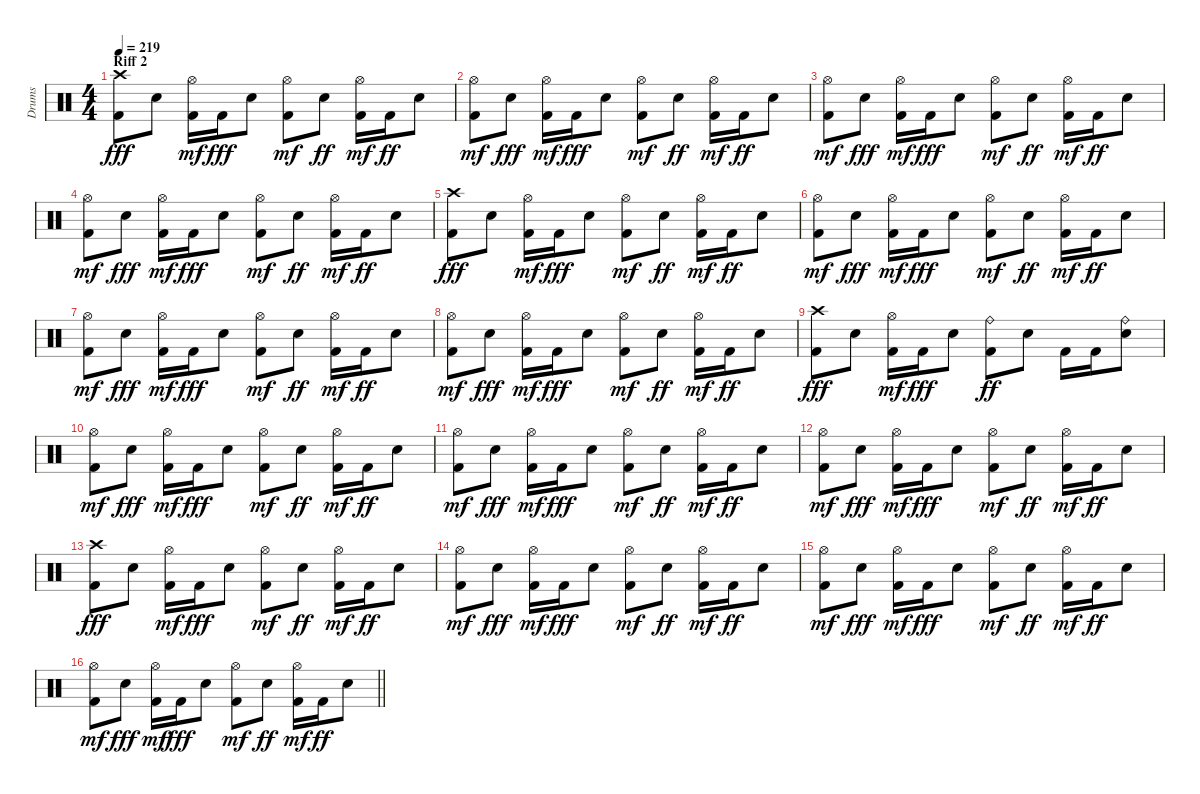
\track ("Drums" "Drums") {instrument percussion}
\staff {score}
\articulation defaults
\ts (4 4)
\section ("" "Riff 2")
\tempo 219
\clef neutral
\ks c
("Kick (hit) 2" "Crash high (hit)").8{dy fff} "Snare (hit) 2".8 ("Kick (hit) 2" "Hi-Hat (open)").16{dy mf} "Kick (hit) 2".16{dy fff} "Snare (hit) 2".8 ("Kick (hit) 2" "Hi-Hat (open)").8{dy mf} "Snare (hit) 2".8{dy ff} ("Kick (hit) 2" "Hi-Hat (open)").16{dy mf} "Kick (hit) 2".16{dy ff} "Snare (hit) 2".8 |
("Kick (hit) 2" "Hi-Hat (open)").8{dy mf} "Snare (hit) 2".8{dy fff} ("Kick (hit) 2" "Hi-Hat (open)").16{dy mf} "Kick (hit) 2".16{dy fff} "Snare (hit) 2".8 ("Kick (hit) 2" "Hi-Hat (open)").8{dy mf} "Snare (hit) 2".8{dy ff} ("Kick (hit) 2" "Hi-Hat (open)").16{dy mf} "Kick (hit) 2".16{dy ff} "Snare (hit) 2".8 |
("Kick (hit) 2" "Hi-Hat (open)").8{dy mf} "Snare (hit) 2".8{dy fff} ("Kick (hit) 2" "Hi-Hat (open)").16{dy mf} "Kick (hit) 2".16{dy fff} "Snare (hit) 2".8 ("Kick (hit) 2" "Hi-Hat (open)").8{dy mf} "Snare (hit) 2".8{dy ff} ("Kick (hit) 2" "Hi-Hat (open)").16{dy mf} "Kick (hit) 2".16{dy ff} "Snare (hit) 2".8 |
("Kick (hit) 2" "Hi-Hat (open)").8{dy mf} "Snare (hit) 2".8{dy fff} ("Kick (hit) 2" "Hi-Hat (open)").16{dy mf} "Kick (hit) 2".16{dy fff} "Snare (hit) 2".8 ("Kick (hit) 2" "Hi-Hat (open)").8{dy mf} "Snare (hit) 2".8{dy ff} ("Kick (hit) 2" "Hi-Hat (open)").16{dy mf} "Kick (hit) 2".16{dy ff} "Snare (hit) 2".8 |
("Kick (hit) 2" "Crash high (hit)").8{dy fff} "Snare (hit) 2".8 ("Kick (hit) 2" "Hi-Hat (open)").16{dy mf} "Kick (hit) 2".16{dy fff} "Snare (hit) 2".8 ("Kick (hit) 2" "Hi-Hat (open)").8{dy mf} "Snare (hit) 2".8{dy ff} ("Kick (hit) 2" "Hi-Hat (open)").16{dy mf} "Kick (hit) 2".16{dy ff} "Snare (hit) 2".8 |
("Kick (hit) 2" "Hi-Hat (open)").8{dy mf} "Snare (hit) 2".8{dy fff} ("Kick (hit) 2" "Hi-Hat (open)").16{dy mf} "Kick (hit) 2".16{dy fff} "Snare (hit) 2".8 ("Kick (hit) 2" "Hi-Hat (open)").8{dy mf} "Snare (hit) 2".8{dy ff} ("Kick (hit) 2" "Hi-Hat (open)").16{dy mf} "Kick (hit) 2".16{dy ff} "Snare (hit) 2".8 |
("Kick (hit) 2" "Hi-Hat (open)").8{dy mf} "Snare (hit) 2".8{dy fff} ("Kick (hit) 2" "Hi-Hat (open)").16{dy mf} "Kick (hit) 2".16{dy fff} "Snare (hit) 2".8 ("Kick (hit) 2" "Hi-Hat (open)").8{dy mf} "Snare (hit) 2".8{dy ff} ("Kick (hit) 2" "Hi-Hat (open)").16{dy mf} "Kick (hit) 2".16{dy ff} "Snare (hit) 2".8 |
("Kick (hit) 2" "Hi-Hat (open)").8{dy mf} "Snare (hit) 2".8{dy fff} ("Kick (hit) 2" "Hi-Hat (open)").16{dy mf} "Kick (hit) 2".16{dy fff} "Snare (hit) 2".8 ("Kick (hit) 2" "Hi-Hat (open)").8{dy mf} "Snare (hit) 2".8{dy ff} ("Kick (hit) 2" "Hi-Hat (open)").16{dy mf} "Kick (hit) 2".16{dy ff} "Snare (hit) 2".8 |
("Kick (hit) 2" "Crash high (hit)").8{dy fff} "Snare (hit) 2".8 ("Kick (hit) 2" "Hi-Hat (open)").16{dy mf} "Kick (hit) 2".16{dy fff} "Snare (hit) 2".8 ("Kick (hit) 2" "Ride (bell)").8{dy ff} "Snare (hit) 2".8 "Kick (hit) 2".16 "Kick (hit) 2".16 ("Snare (hit) 2" "Ride (bell)").8 |
("Kick (hit) 2" "Hi-Hat (open)").8{dy mf} "Snare (hit) 2".8{dy fff} ("Kick (hit) 2" "Hi-Hat (open)").16{dy mf} "Kick (hit) 2".16{dy fff} "Snare (hit) 2".8 ("Kick (hit) 2" "Hi-Hat (open)").8{dy mf} "Snare (hit) 2".8{dy ff} ("Kick (hit) 2" "Hi-Hat (open)").16{dy mf} "Kick (hit) 2".16{dy ff} "Snare (hit) 2".8 |
("Kick (hit) 2" "Hi-Hat (open)").8{dy mf} "Snare (hit) 2".8{dy fff} ("Kick (hit) 2" "Hi-Hat (open)").16{dy mf} "Kick (hit) 2".16{dy fff} "Snare (hit) 2".8 ("Kick (hit) 2" "Hi-Hat (open)").8{dy mf} "Snare (hit) 2".8{dy ff} ("Kick (hit) 2" "Hi-Hat (open)").16{dy mf} "Kick (hit) 2".16{dy ff} "Snare (hit) 2".8 |
("Kick (hit) 2" "Hi-Hat (open)").8{dy mf} "Snare (hit) 2".8{dy fff} ("Kick (hit) 2" "Hi-Hat (open)").16{dy mf} "Kick (hit) 2".16{dy fff} "Snare (hit) 2".8 ("Kick (hit) 2" "Hi-Hat (open)").8{dy mf} "Snare (hit) 2".8{dy ff} ("Kick (hit) 2" "Hi-Hat (open)").16{dy mf} "Kick (hit) 2".16{dy ff} "Snare (hit) 2".8 |
("Kick (hit) 2" "Crash high (hit)").8{dy fff} "Snare (hit) 2".8 ("Kick (hit) 2" "Hi-Hat (open)").16{dy mf} "Kick (hit) 2".16{dy fff} "Snare (hit) 2".8 ("Kick (hit) 2" "Hi-Hat (open)").8{dy mf} "Snare (hit) 2".8{dy ff} ("Kick (hit) 2" "Hi-Hat (open)").16{dy mf} "Kick (hit) 2".16{dy ff} "Snare (hit) 2".8 |
("Kick (hit) 2" "Hi-Hat (open)").8{dy mf} "Snare (hit) 2".8{dy fff} ("Kick (hit) 2" "Hi-Hat (open)").16{dy mf} "Kick (hit) 2".16{dy fff} "Snare (hit) 2".8 ("Kick (hit) 2" "Hi-Hat (open)").8{dy mf} "Snare (hit) 2".8{dy ff} ("Kick (hit) 2" "Hi-Hat (open)").16{dy mf} "Kick (hit) 2".16{dy ff} "Snare (hit) 2".8 |
("Kick (hit) 2" "Hi-Hat (open)").8{dy mf} "Snare (hit) 2".8{dy fff} ("Kick (hit) 2" "Hi-Hat (open)").16{dy mf} "Kick (hit) 2".16{dy fff} "Snare (hit) 2".8 ("Kick (hit) 2" "Hi-Hat (open)").8{dy mf} "Snare (hit) 2".8{dy ff} ("Kick (hit) 2" "Hi-Hat (open)").16{dy mf} "Kick (hit) 2".16{dy ff} "Snare (hit) 2".8 |
\barLineRight lightlight
("Kick (hit) 2" "Hi-Hat (open)").8{dy mf} "Snare (hit) 2".8{dy fff} ("Kick (hit) 2" "Hi-Hat (open)").16{dy mf} "Kick (hit) 2".16{dy fff} "Snare (hit) 2".8 ("Kick (hit) 2" "Hi-Hat (open)").8{dy mf} "Snare (hit) 2".8{dy ff} ("Kick (hit) 2" "Hi-Hat (open)").16{dy mf} "Kick (hit) 2".16{dy ff} "Snare (hit) 2".8
